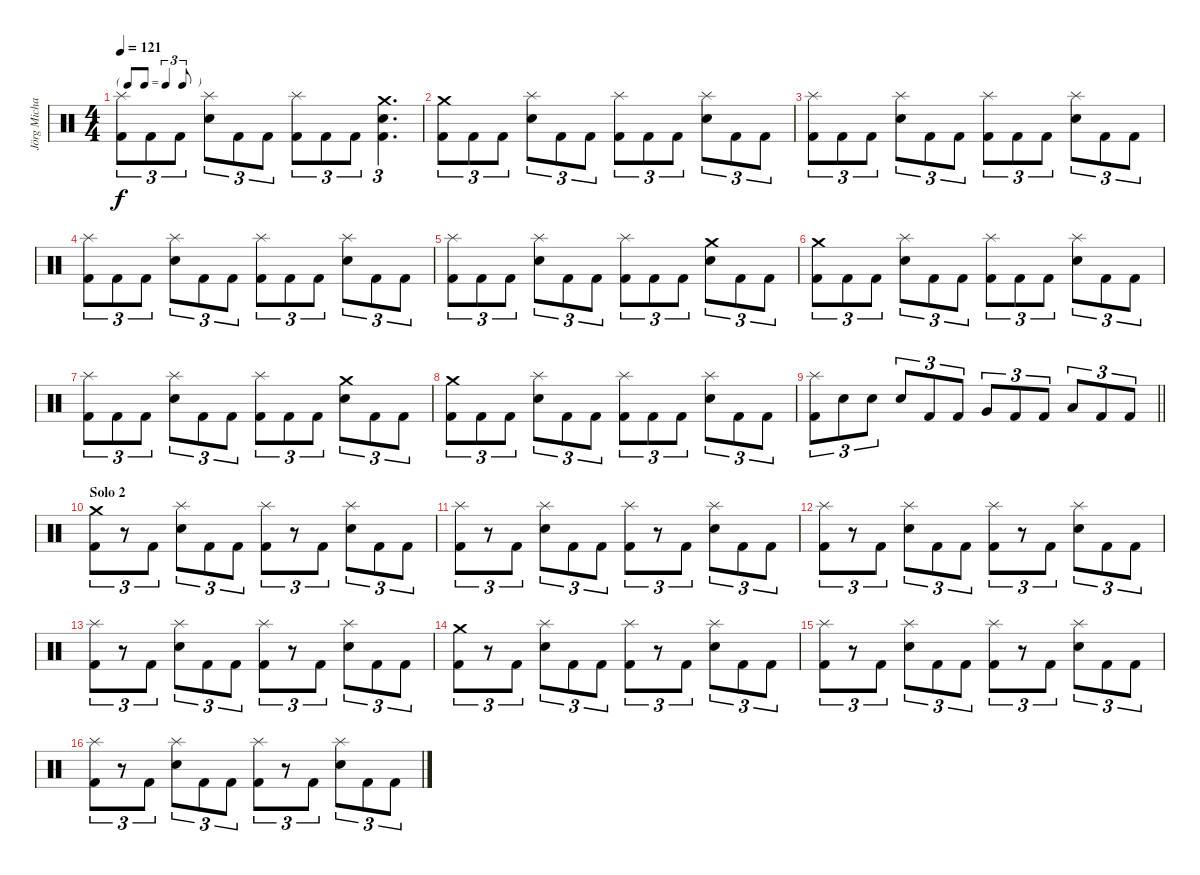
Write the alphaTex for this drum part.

\track ("Jörg Michael" "Jörg Micha") {instrument percussion}
\staff {score}
\articulation defaults
\ts (4 4)
\tf triplet8th
\tempo 121
\clef neutral
\ks c
("Splash (hit)" "Kick (hit) 2").8{tu (3 2) dy f} "Kick (hit) 2".8{tu (3 2)} "Kick (hit) 2".8{tu (3 2)} ("Splash (hit)" "Snare (hit) 2").8{tu (3 2)} "Kick (hit) 2".8{tu (3 2)} "Kick (hit) 2".8{tu (3 2)} ("Splash (hit)" "Kick (hit) 2").8{tu (3 2)} "Kick (hit) 2".8{tu (3 2)} "Kick (hit) 2".8{tu (3 2)} ("Crash medium (hit)" "Snare (hit) 2" "Kick (hit) 2").4{d tu (3 2)} |
("Crash medium (hit)" "Kick (hit) 2").8{tu (3 2)} "Kick (hit) 2".8{tu (3 2)} "Kick (hit) 2".8{tu (3 2)} ("Splash (hit)" "Snare (hit) 2").8{tu (3 2)} "Kick (hit) 2".8{tu (3 2)} "Kick (hit) 2".8{tu (3 2)} ("Splash (hit)" "Kick (hit) 2").8{tu (3 2)} "Kick (hit) 2".8{tu (3 2)} "Kick (hit) 2".8{tu (3 2)} ("Splash (hit)" "Snare (hit) 2").8{tu (3 2)} "Kick (hit) 2".8{tu (3 2)} "Kick (hit) 2".8{tu (3 2)} |
("Splash (hit)" "Kick (hit) 2").8{tu (3 2)} "Kick (hit) 2".8{tu (3 2)} "Kick (hit) 2".8{tu (3 2)} ("Splash (hit)" "Snare (hit) 2").8{tu (3 2)} "Kick (hit) 2".8{tu (3 2)} "Kick (hit) 2".8{tu (3 2)} ("Splash (hit)" "Kick (hit) 2").8{tu (3 2)} "Kick (hit) 2".8{tu (3 2)} "Kick (hit) 2".8{tu (3 2)} ("Splash (hit)" "Snare (hit) 2").8{tu (3 2)} "Kick (hit) 2".8{tu (3 2)} "Kick (hit) 2".8{tu (3 2)} |
("Splash (hit)" "Kick (hit) 2").8{tu (3 2)} "Kick (hit) 2".8{tu (3 2)} "Kick (hit) 2".8{tu (3 2)} ("Splash (hit)" "Snare (hit) 2").8{tu (3 2)} "Kick (hit) 2".8{tu (3 2)} "Kick (hit) 2".8{tu (3 2)} ("Splash (hit)" "Kick (hit) 2").8{tu (3 2)} "Kick (hit) 2".8{tu (3 2)} "Kick (hit) 2".8{tu (3 2)} ("Splash (hit)" "Snare (hit) 2").8{tu (3 2)} "Kick (hit) 2".8{tu (3 2)} "Kick (hit) 2".8{tu (3 2)} |
("Splash (hit)" "Kick (hit) 2").8{tu (3 2)} "Kick (hit) 2".8{tu (3 2)} "Kick (hit) 2".8{tu (3 2)} ("Splash (hit)" "Snare (hit) 2").8{tu (3 2)} "Kick (hit) 2".8{tu (3 2)} "Kick (hit) 2".8{tu (3 2)} ("Splash (hit)" "Kick (hit) 2").8{tu (3 2)} "Kick (hit) 2".8{tu (3 2)} "Kick (hit) 2".8{tu (3 2)} ("Crash medium (hit)" "Snare (hit) 2").8{tu (3 2)} "Kick (hit) 2".8{tu (3 2)} "Kick (hit) 2".8{tu (3 2)} |
("Crash medium (hit)" "Kick (hit) 2").8{tu (3 2)} "Kick (hit) 2".8{tu (3 2)} "Kick (hit) 2".8{tu (3 2)} ("Splash (hit)" "Snare (hit) 2").8{tu (3 2)} "Kick (hit) 2".8{tu (3 2)} "Kick (hit) 2".8{tu (3 2)} ("Splash (hit)" "Kick (hit) 2").8{tu (3 2)} "Kick (hit) 2".8{tu (3 2)} "Kick (hit) 2".8{tu (3 2)} ("Splash (hit)" "Snare (hit) 2").8{tu (3 2)} "Kick (hit) 2".8{tu (3 2)} "Kick (hit) 2".8{tu (3 2)} |
("Splash (hit)" "Kick (hit) 2").8{tu (3 2)} "Kick (hit) 2".8{tu (3 2)} "Kick (hit) 2".8{tu (3 2)} ("Splash (hit)" "Snare (hit) 2").8{tu (3 2)} "Kick (hit) 2".8{tu (3 2)} "Kick (hit) 2".8{tu (3 2)} ("Splash (hit)" "Kick (hit) 2").8{tu (3 2)} "Kick (hit) 2".8{tu (3 2)} "Kick (hit) 2".8{tu (3 2)} ("Crash medium (hit)" "Snare (hit) 2").8{tu (3 2)} "Kick (hit) 2".8{tu (3 2)} "Kick (hit) 2".8{tu (3 2)} |
("Crash medium (hit)" "Kick (hit) 2").8{tu (3 2)} "Kick (hit) 2".8{tu (3 2)} "Kick (hit) 2".8{tu (3 2)} ("Splash (hit)" "Snare (hit) 2").8{tu (3 2)} "Kick (hit) 2".8{tu (3 2)} "Kick (hit) 2".8{tu (3 2)} ("Splash (hit)" "Kick (hit) 2").8{tu (3 2)} "Kick (hit) 2".8{tu (3 2)} "Kick (hit) 2".8{tu (3 2)} ("Splash (hit)" "Snare (hit) 2").8{tu (3 2)} "Kick (hit) 2".8{tu (3 2)} "Kick (hit) 2".8{tu (3 2)} |
\barLineRight lightlight
("Splash (hit)" "Kick (hit) 2").8{tu (3 2)} "Snare (hit) 2".8{tu (3 2)} "Snare (hit) 2".8{tu (3 2)} "Snare (hit) 2".8{tu (3 2)} "Kick (hit) 2".8{tu (3 2)} "Kick (hit) 2".8{tu (3 2)} "Very Low Tom (hit)".8{tu (3 2)} "Kick (hit) 2".8{tu (3 2)} "Kick (hit) 2".8{tu (3 2)} "Low Floor Tom (hit)".8{tu (3 2)} "Kick (hit) 2".8{tu (3 2)} "Kick (hit) 2".8{tu (3 2)} |
\section ("" "Solo 2")
("Crash medium (hit)" "Kick (hit) 2").8{tu (3 2)} r.8{tu (3 2)} "Kick (hit) 2".8{tu (3 2)} ("Splash (hit)" "Snare (hit) 2").8{tu (3 2)} "Kick (hit) 2".8{tu (3 2)} "Kick (hit) 2".8{tu (3 2)} ("Splash (hit)" "Kick (hit) 2").8{tu (3 2)} r.8{tu (3 2)} "Kick (hit) 2".8{tu (3 2)} ("Splash (hit)" "Snare (hit) 2").8{tu (3 2)} "Kick (hit) 2".8{tu (3 2)} "Kick (hit) 2".8{tu (3 2)} |
("Splash (hit)" "Kick (hit) 2").8{tu (3 2)} r.8{tu (3 2)} "Kick (hit) 2".8{tu (3 2)} ("Splash (hit)" "Snare (hit) 2").8{tu (3 2)} "Kick (hit) 2".8{tu (3 2)} "Kick (hit) 2".8{tu (3 2)} ("Splash (hit)" "Kick (hit) 2").8{tu (3 2)} r.8{tu (3 2)} "Kick (hit) 2".8{tu (3 2)} ("Splash (hit)" "Snare (hit) 2").8{tu (3 2)} "Kick (hit) 2".8{tu (3 2)} "Kick (hit) 2".8{tu (3 2)} |
("Splash (hit)" "Kick (hit) 2").8{tu (3 2)} r.8{tu (3 2)} "Kick (hit) 2".8{tu (3 2)} ("Splash (hit)" "Snare (hit) 2").8{tu (3 2)} "Kick (hit) 2".8{tu (3 2)} "Kick (hit) 2".8{tu (3 2)} ("Splash (hit)" "Kick (hit) 2").8{tu (3 2)} r.8{tu (3 2)} "Kick (hit) 2".8{tu (3 2)} ("Splash (hit)" "Snare (hit) 2").8{tu (3 2)} "Kick (hit) 2".8{tu (3 2)} "Kick (hit) 2".8{tu (3 2)} |
("Splash (hit)" "Kick (hit) 2").8{tu (3 2)} r.8{tu (3 2)} "Kick (hit) 2".8{tu (3 2)} ("Splash (hit)" "Snare (hit) 2").8{tu (3 2)} "Kick (hit) 2".8{tu (3 2)} "Kick (hit) 2".8{tu (3 2)} ("Splash (hit)" "Kick (hit) 2").8{tu (3 2)} r.8{tu (3 2)} "Kick (hit) 2".8{tu (3 2)} ("Splash (hit)" "Snare (hit) 2").8{tu (3 2)} "Kick (hit) 2".8{tu (3 2)} "Kick (hit) 2".8{tu (3 2)} |
("Crash medium (hit)" "Kick (hit) 2").8{tu (3 2)} r.8{tu (3 2)} "Kick (hit) 2".8{tu (3 2)} ("Splash (hit)" "Snare (hit) 2").8{tu (3 2)} "Kick (hit) 2".8{tu (3 2)} "Kick (hit) 2".8{tu (3 2)} ("Splash (hit)" "Kick (hit) 2").8{tu (3 2)} r.8{tu (3 2)} "Kick (hit) 2".8{tu (3 2)} ("Splash (hit)" "Snare (hit) 2").8{tu (3 2)} "Kick (hit) 2".8{tu (3 2)} "Kick (hit) 2".8{tu (3 2)} |
("Splash (hit)" "Kick (hit) 2").8{tu (3 2)} r.8{tu (3 2)} "Kick (hit) 2".8{tu (3 2)} ("Splash (hit)" "Snare (hit) 2").8{tu (3 2)} "Kick (hit) 2".8{tu (3 2)} "Kick (hit) 2".8{tu (3 2)} ("Splash (hit)" "Kick (hit) 2").8{tu (3 2)} r.8{tu (3 2)} "Kick (hit) 2".8{tu (3 2)} ("Splash (hit)" "Snare (hit) 2").8{tu (3 2)} "Kick (hit) 2".8{tu (3 2)} "Kick (hit) 2".8{tu (3 2)} |
("Splash (hit)" "Kick (hit) 2").8{tu (3 2)} r.8{tu (3 2)} "Kick (hit) 2".8{tu (3 2)} ("Splash (hit)" "Snare (hit) 2").8{tu (3 2)} "Kick (hit) 2".8{tu (3 2)} "Kick (hit) 2".8{tu (3 2)} ("Splash (hit)" "Kick (hit) 2").8{tu (3 2)} r.8{tu (3 2)} "Kick (hit) 2".8{tu (3 2)} ("Splash (hit)" "Snare (hit) 2").8{tu (3 2)} "Kick (hit) 2".8{tu (3 2)} "Kick (hit) 2".8{tu (3 2)}
